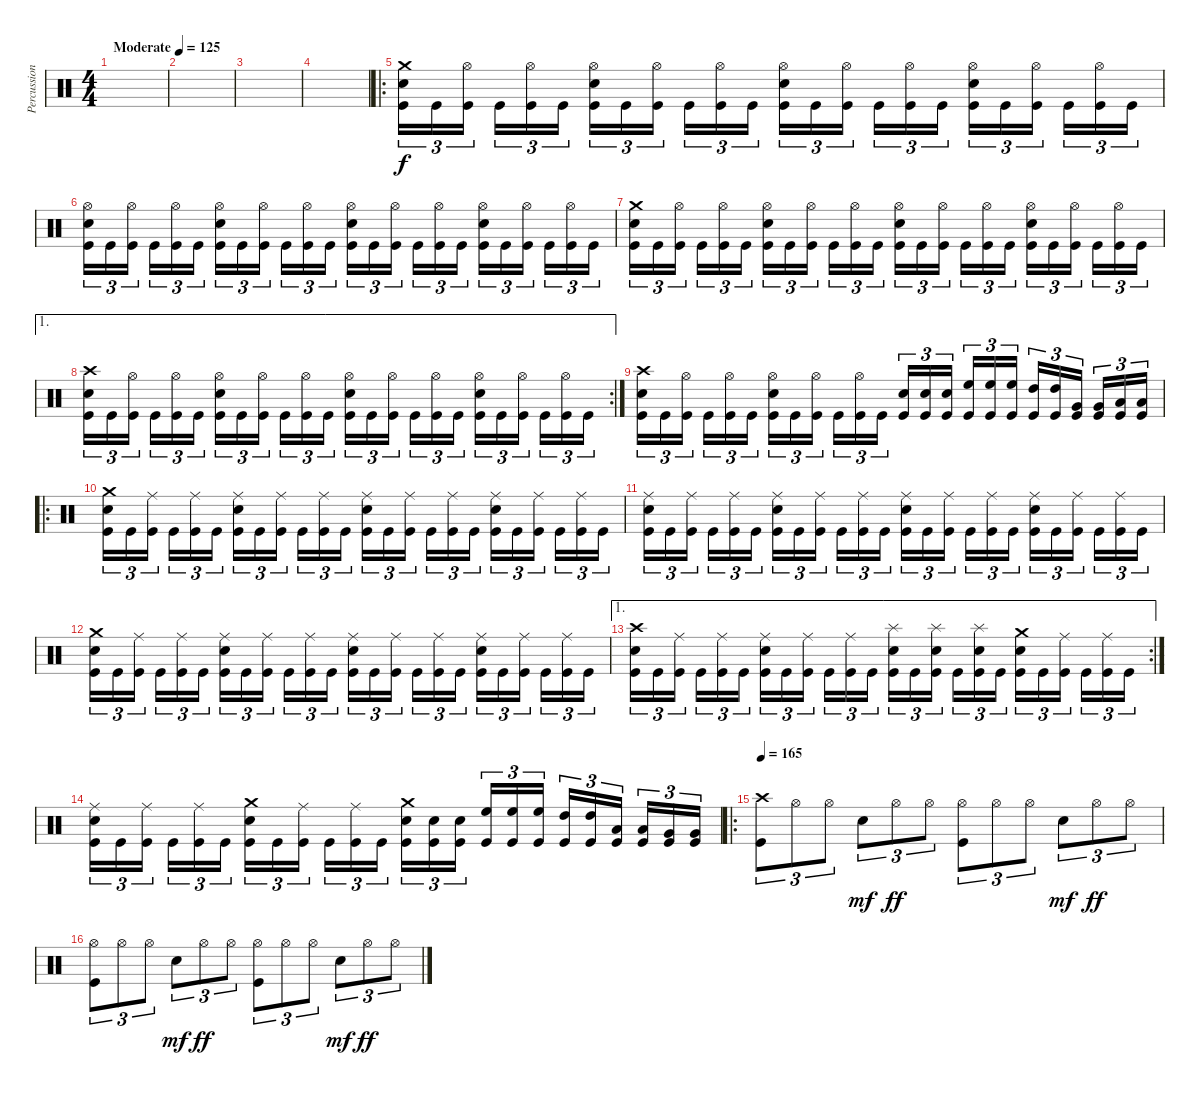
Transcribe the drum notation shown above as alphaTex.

\track ("Percussion" "Percussion") {instrument percussion}
\staff {score}
\articulation defaults
\ts (4 4)
\tempo (125 "Moderate")
\clef neutral
\ks c
|
|
|
|
\ro
("Crash medium (hit)" "Electric Snare (hit)" "Kick (hit)").16{tu (3 2)} "Kick (hit)".16{tu (3 2)} ("Hi-Hat (open)" "Kick (hit)").16{tu (3 2) beam splitsecondary} "Kick (hit)".16{tu (3 2)} ("Hi-Hat (open)" "Kick (hit)").16{tu (3 2)} "Kick (hit)".16{tu (3 2)} ("Hi-Hat (open)" "Electric Snare (hit)" "Kick (hit)").16{tu (3 2)} "Kick (hit)".16{tu (3 2)} ("Hi-Hat (open)" "Kick (hit)").16{tu (3 2) beam splitsecondary} "Kick (hit)".16{tu (3 2)} ("Hi-Hat (open)" "Kick (hit)").16{tu (3 2)} "Kick (hit)".16{tu (3 2)} ("Hi-Hat (open)" "Electric Snare (hit)" "Kick (hit)").16{tu (3 2)} "Kick (hit)".16{tu (3 2)} ("Hi-Hat (open)" "Kick (hit)").16{tu (3 2) beam splitsecondary} "Kick (hit)".16{tu (3 2)} ("Hi-Hat (open)" "Kick (hit)").16{tu (3 2)} "Kick (hit)".16{tu (3 2)} ("Hi-Hat (open)" "Electric Snare (hit)" "Kick (hit)").16{tu (3 2)} "Kick (hit)".16{tu (3 2)} ("Hi-Hat (open)" "Kick (hit)").16{tu (3 2) beam splitsecondary} "Kick (hit)".16{tu (3 2)} ("Hi-Hat (open)" "Kick (hit)").16{tu (3 2)} "Kick (hit)".16{tu (3 2)} |
("Hi-Hat (open)" "Electric Snare (hit)" "Kick (hit)").16{tu (3 2)} "Kick (hit)".16{tu (3 2)} ("Hi-Hat (open)" "Kick (hit)").16{tu (3 2) beam splitsecondary} "Kick (hit)".16{tu (3 2)} ("Hi-Hat (open)" "Kick (hit)").16{tu (3 2)} "Kick (hit)".16{tu (3 2)} ("Hi-Hat (open)" "Electric Snare (hit)" "Kick (hit)").16{tu (3 2)} "Kick (hit)".16{tu (3 2)} ("Hi-Hat (open)" "Kick (hit)").16{tu (3 2) beam splitsecondary} "Kick (hit)".16{tu (3 2)} ("Hi-Hat (open)" "Kick (hit)").16{tu (3 2)} "Kick (hit)".16{tu (3 2)} ("Hi-Hat (open)" "Electric Snare (hit)" "Kick (hit)").16{tu (3 2)} "Kick (hit)".16{tu (3 2)} ("Hi-Hat (open)" "Kick (hit)").16{tu (3 2) beam splitsecondary} "Kick (hit)".16{tu (3 2)} ("Hi-Hat (open)" "Kick (hit)").16{tu (3 2)} "Kick (hit)".16{tu (3 2)} ("Hi-Hat (open)" "Electric Snare (hit)" "Kick (hit)").16{tu (3 2)} "Kick (hit)".16{tu (3 2)} ("Hi-Hat (open)" "Kick (hit)").16{tu (3 2) beam splitsecondary} "Kick (hit)".16{tu (3 2)} ("Hi-Hat (open)" "Kick (hit)").16{tu (3 2)} "Kick (hit)".16{tu (3 2)} |
("Crash medium (hit)" "Electric Snare (hit)" "Kick (hit)").16{tu (3 2)} "Kick (hit)".16{tu (3 2)} ("Hi-Hat (open)" "Kick (hit)").16{tu (3 2) beam splitsecondary} "Kick (hit)".16{tu (3 2)} ("Hi-Hat (open)" "Kick (hit)").16{tu (3 2)} "Kick (hit)".16{tu (3 2)} ("Hi-Hat (open)" "Electric Snare (hit)" "Kick (hit)").16{tu (3 2)} "Kick (hit)".16{tu (3 2)} ("Hi-Hat (open)" "Kick (hit)").16{tu (3 2) beam splitsecondary} "Kick (hit)".16{tu (3 2)} ("Hi-Hat (open)" "Kick (hit)").16{tu (3 2)} "Kick (hit)".16{tu (3 2)} ("Hi-Hat (open)" "Electric Snare (hit)" "Kick (hit)").16{tu (3 2)} "Kick (hit)".16{tu (3 2)} ("Hi-Hat (open)" "Kick (hit)").16{tu (3 2) beam splitsecondary} "Kick (hit)".16{tu (3 2)} ("Hi-Hat (open)" "Kick (hit)").16{tu (3 2)} "Kick (hit)".16{tu (3 2)} ("Hi-Hat (open)" "Electric Snare (hit)" "Kick (hit)").16{tu (3 2)} "Kick (hit)".16{tu (3 2)} ("Hi-Hat (open)" "Kick (hit)").16{tu (3 2) beam splitsecondary} "Kick (hit)".16{tu (3 2)} ("Hi-Hat (open)" "Kick (hit)").16{tu (3 2)} "Kick (hit)".16{tu (3 2)} |
\ae 1
\rc 2
("Crash high (hit)" "Electric Snare (hit)" "Kick (hit)").16{tu (3 2)} "Kick (hit)".16{tu (3 2)} ("Hi-Hat (open)" "Kick (hit)").16{tu (3 2) beam splitsecondary} "Kick (hit)".16{tu (3 2)} ("Hi-Hat (open)" "Kick (hit)").16{tu (3 2)} "Kick (hit)".16{tu (3 2)} ("Hi-Hat (open)" "Electric Snare (hit)" "Kick (hit)").16{tu (3 2)} "Kick (hit)".16{tu (3 2)} ("Hi-Hat (open)" "Kick (hit)").16{tu (3 2) beam splitsecondary} "Kick (hit)".16{tu (3 2)} ("Hi-Hat (open)" "Kick (hit)").16{tu (3 2)} "Kick (hit)".16{tu (3 2)} ("Hi-Hat (open)" "Electric Snare (hit)" "Kick (hit)").16{tu (3 2)} "Kick (hit)".16{tu (3 2)} ("Hi-Hat (open)" "Kick (hit)").16{tu (3 2) beam splitsecondary} "Kick (hit)".16{tu (3 2)} ("Hi-Hat (open)" "Kick (hit)").16{tu (3 2)} "Kick (hit)".16{tu (3 2)} ("Hi-Hat (open)" "Electric Snare (hit)" "Kick (hit)").16{tu (3 2)} "Kick (hit)".16{tu (3 2)} ("Hi-Hat (open)" "Kick (hit)").16{tu (3 2) beam splitsecondary} "Kick (hit)".16{tu (3 2)} ("Hi-Hat (open)" "Kick (hit)").16{tu (3 2)} "Kick (hit)".16{tu (3 2)} |
("Crash high (hit)" "Electric Snare (hit)" "Kick (hit)").16{tu (3 2)} "Kick (hit)".16{tu (3 2)} ("Hi-Hat (open)" "Kick (hit)").16{tu (3 2) beam splitsecondary} "Kick (hit)".16{tu (3 2)} ("Hi-Hat (open)" "Kick (hit)").16{tu (3 2)} "Kick (hit)".16{tu (3 2)} ("Hi-Hat (open)" "Electric Snare (hit)" "Kick (hit)").16{tu (3 2)} "Kick (hit)".16{tu (3 2)} ("Hi-Hat (open)" "Kick (hit)").16{tu (3 2) beam splitsecondary} "Kick (hit)".16{tu (3 2)} ("Hi-Hat (open)" "Kick (hit)").16{tu (3 2)} "Kick (hit)".16{tu (3 2)} ("Electric Snare (hit)" "Kick (hit)").16{tu (3 2)} ("Electric Snare (hit)" "Kick (hit)").16{tu (3 2)} ("Electric Snare (hit)" "Kick (hit)").16{tu (3 2) beam splitsecondary} ("High Floor Tom (hit)" "Kick (hit)").16{tu (3 2)} ("High Floor Tom (hit)" "Kick (hit)").16{tu (3 2)} ("High Floor Tom (hit)" "Kick (hit)").16{tu (3 2)} ("High Tom (hit)" "Kick (hit)").16{tu (3 2)} ("High Tom (hit)" "Kick (hit)").16{tu (3 2)} ("Very Low Tom (hit)" "Kick (hit)").16{tu (3 2) beam splitsecondary} ("Very Low Tom (hit)" "Kick (hit)").16{tu (3 2)} ("Low Floor Tom (hit)" "Kick (hit)").16{tu (3 2)} ("Low Floor Tom (hit)" "Kick (hit)").16{tu (3 2)} |
\ro
("Crash medium (hit)" "Electric Snare (hit)" "Kick (hit)").16{tu (3 2)} "Kick (hit)".16{tu (3 2)} ("Ride (middle)" "Kick (hit)").16{tu (3 2) beam splitsecondary} "Kick (hit)".16{tu (3 2)} ("Ride (middle)" "Kick (hit)").16{tu (3 2)} "Kick (hit)".16{tu (3 2)} ("Ride (middle)" "Electric Snare (hit)" "Kick (hit)").16{tu (3 2)} "Kick (hit)".16{tu (3 2)} ("Ride (middle)" "Kick (hit)").16{tu (3 2) beam splitsecondary} "Kick (hit)".16{tu (3 2)} ("Ride (middle)" "Kick (hit)").16{tu (3 2)} "Kick (hit)".16{tu (3 2)} ("Ride (middle)" "Electric Snare (hit)" "Kick (hit)").16{tu (3 2)} "Kick (hit)".16{tu (3 2)} ("Ride (middle)" "Kick (hit)").16{tu (3 2) beam splitsecondary} "Kick (hit)".16{tu (3 2)} ("Ride (middle)" "Kick (hit)").16{tu (3 2)} "Kick (hit)".16{tu (3 2)} ("Ride (middle)" "Electric Snare (hit)" "Kick (hit)").16{tu (3 2)} "Kick (hit)".16{tu (3 2)} ("Ride (middle)" "Kick (hit)").16{tu (3 2) beam splitsecondary} "Kick (hit)".16{tu (3 2)} ("Ride (middle)" "Kick (hit)").16{tu (3 2)} "Kick (hit)".16{tu (3 2)} |
("Ride (middle)" "Electric Snare (hit)" "Kick (hit)").16{tu (3 2)} "Kick (hit)".16{tu (3 2)} ("Ride (middle)" "Kick (hit)").16{tu (3 2) beam splitsecondary} "Kick (hit)".16{tu (3 2)} ("Ride (middle)" "Kick (hit)").16{tu (3 2)} "Kick (hit)".16{tu (3 2)} ("Ride (middle)" "Electric Snare (hit)" "Kick (hit)").16{tu (3 2)} "Kick (hit)".16{tu (3 2)} ("Ride (middle)" "Kick (hit)").16{tu (3 2) beam splitsecondary} "Kick (hit)".16{tu (3 2)} ("Ride (middle)" "Kick (hit)").16{tu (3 2)} "Kick (hit)".16{tu (3 2)} ("Ride (middle)" "Electric Snare (hit)" "Kick (hit)").16{tu (3 2)} "Kick (hit)".16{tu (3 2)} ("Ride (middle)" "Kick (hit)").16{tu (3 2) beam splitsecondary} "Kick (hit)".16{tu (3 2)} ("Ride (middle)" "Kick (hit)").16{tu (3 2)} "Kick (hit)".16{tu (3 2)} ("Ride (middle)" "Electric Snare (hit)" "Kick (hit)").16{tu (3 2)} "Kick (hit)".16{tu (3 2)} ("Ride (middle)" "Kick (hit)").16{tu (3 2) beam splitsecondary} "Kick (hit)".16{tu (3 2)} ("Ride (middle)" "Kick (hit)").16{tu (3 2)} "Kick (hit)".16{tu (3 2)} |
("Crash medium (hit)" "Electric Snare (hit)" "Kick (hit)").16{tu (3 2)} "Kick (hit)".16{tu (3 2)} ("Ride (middle)" "Kick (hit)").16{tu (3 2) beam splitsecondary} "Kick (hit)".16{tu (3 2)} ("Ride (middle)" "Kick (hit)").16{tu (3 2)} "Kick (hit)".16{tu (3 2)} ("Ride (middle)" "Electric Snare (hit)" "Kick (hit)").16{tu (3 2)} "Kick (hit)".16{tu (3 2)} ("Ride (middle)" "Kick (hit)").16{tu (3 2) beam splitsecondary} "Kick (hit)".16{tu (3 2)} ("Ride (middle)" "Kick (hit)").16{tu (3 2)} "Kick (hit)".16{tu (3 2)} ("Ride (middle)" "Electric Snare (hit)" "Kick (hit)").16{tu (3 2)} "Kick (hit)".16{tu (3 2)} ("Ride (middle)" "Kick (hit)").16{tu (3 2) beam splitsecondary} "Kick (hit)".16{tu (3 2)} ("Ride (middle)" "Kick (hit)").16{tu (3 2)} "Kick (hit)".16{tu (3 2)} ("Ride (middle)" "Electric Snare (hit)" "Kick (hit)").16{tu (3 2)} "Kick (hit)".16{tu (3 2)} ("Ride (middle)" "Kick (hit)").16{tu (3 2) beam splitsecondary} "Kick (hit)".16{tu (3 2)} ("Ride (middle)" "Kick (hit)").16{tu (3 2)} "Kick (hit)".16{tu (3 2)} |
\ae 1
\rc 2
("Crash high (hit)" "Electric Snare (hit)" "Kick (hit)").16{tu (3 2)} "Kick (hit)".16{tu (3 2)} ("Ride (middle)" "Kick (hit)").16{tu (3 2) beam splitsecondary} "Kick (hit)".16{tu (3 2)} ("Ride (middle)" "Kick (hit)").16{tu (3 2)} "Kick (hit)".16{tu (3 2)} ("Ride (middle)" "Electric Snare (hit)" "Kick (hit)").16{tu (3 2)} "Kick (hit)".16{tu (3 2)} ("Ride (middle)" "Kick (hit)").16{tu (3 2) beam splitsecondary} "Kick (hit)".16{tu (3 2)} ("Ride (middle)" "Kick (hit)").16{tu (3 2)} "Kick (hit)".16{tu (3 2)} ("Splash (hit)" "Electric Snare (hit)" "Kick (hit)").16{tu (3 2)} "Kick (hit)".16{tu (3 2)} ("Splash (hit)" "Electric Snare (hit)" "Kick (hit)").16{tu (3 2) beam splitsecondary} "Kick (hit)".16{tu (3 2)} ("Splash (hit)" "Electric Snare (hit)" "Kick (hit)").16{tu (3 2)} "Kick (hit)".16{tu (3 2)} ("Crash medium (hit)" "Electric Snare (hit)" "Kick (hit)").16{tu (3 2)} "Kick (hit)".16{tu (3 2)} ("Ride (middle)" "Kick (hit)").16{tu (3 2) beam splitsecondary} "Kick (hit)".16{tu (3 2)} ("Ride (middle)" "Kick (hit)").16{tu (3 2)} "Kick (hit)".16{tu (3 2)} |
("Ride (middle)" "Electric Snare (hit)" "Kick (hit)").16{tu (3 2)} "Kick (hit)".16{tu (3 2)} ("Ride (middle)" "Kick (hit)").16{tu (3 2) beam splitsecondary} "Kick (hit)".16{tu (3 2)} ("Ride (middle)" "Kick (hit)").16{tu (3 2)} "Kick (hit)".16{tu (3 2)} ("Crash medium (hit)" "Electric Snare (hit)" "Kick (hit)").16{tu (3 2)} "Kick (hit)".16{tu (3 2)} ("Ride (middle)" "Kick (hit)").16{tu (3 2) beam splitsecondary} "Kick (hit)".16{tu (3 2)} ("Ride (middle)" "Kick (hit)").16{tu (3 2)} "Kick (hit)".16{tu (3 2)} ("Crash medium (hit)" "Electric Snare (hit)" "Kick (hit)").16{tu (3 2)} ("Electric Snare (hit)" "Kick (hit)").16{tu (3 2)} ("Electric Snare (hit)" "Kick (hit)").16{tu (3 2) beam splitsecondary} ("High Floor Tom (hit)" "Kick (hit)").16{tu (3 2)} ("High Floor Tom (hit)" "Kick (hit)").16{tu (3 2)} ("High Floor Tom (hit)" "Kick (hit)").16{tu (3 2)} ("High Tom (hit)" "Kick (hit)").16{tu (3 2)} ("High Tom (hit)" "Kick (hit)").16{tu (3 2)} ("Low Tom (hit)" "Kick (hit)").16{tu (3 2) beam splitsecondary} ("Low Tom (hit)" "Kick (hit)").16{tu (3 2)} ("Very Low Tom (hit)" "Kick (hit)").16{tu (3 2)} ("Very Low Tom (hit)" "Kick (hit)").16{tu (3 2)} |
\ro
\tempo 165
("Crash high (hit)" "Kick (hit)").8{tu (3 2)} "Hi-Hat (open)".8{tu (3 2)} "Hi-Hat (open)".8{tu (3 2)} "Electric Snare (hit)".8{tu (3 2) dy mf} "Hi-Hat (open)".8{tu (3 2) dy ff} "Hi-Hat (open)".8{tu (3 2)} ("Hi-Hat (open)" "Kick (hit)").8{tu (3 2)} "Hi-Hat (open)".8{tu (3 2)} "Hi-Hat (open)".8{tu (3 2)} "Electric Snare (hit)".8{tu (3 2) dy mf} "Hi-Hat (open)".8{tu (3 2) dy ff} "Hi-Hat (open)".8{tu (3 2)} |
("Hi-Hat (open)" "Kick (hit)").8{tu (3 2)} "Hi-Hat (open)".8{tu (3 2)} "Hi-Hat (open)".8{tu (3 2)} "Electric Snare (hit)".8{tu (3 2) dy mf} "Hi-Hat (open)".8{tu (3 2) dy ff} "Hi-Hat (open)".8{tu (3 2)} ("Hi-Hat (open)" "Kick (hit)").8{tu (3 2)} "Hi-Hat (open)".8{tu (3 2)} "Hi-Hat (open)".8{tu (3 2)} "Electric Snare (hit)".8{tu (3 2) dy mf} "Hi-Hat (open)".8{tu (3 2) dy ff} "Hi-Hat (open)".8{tu (3 2)}
